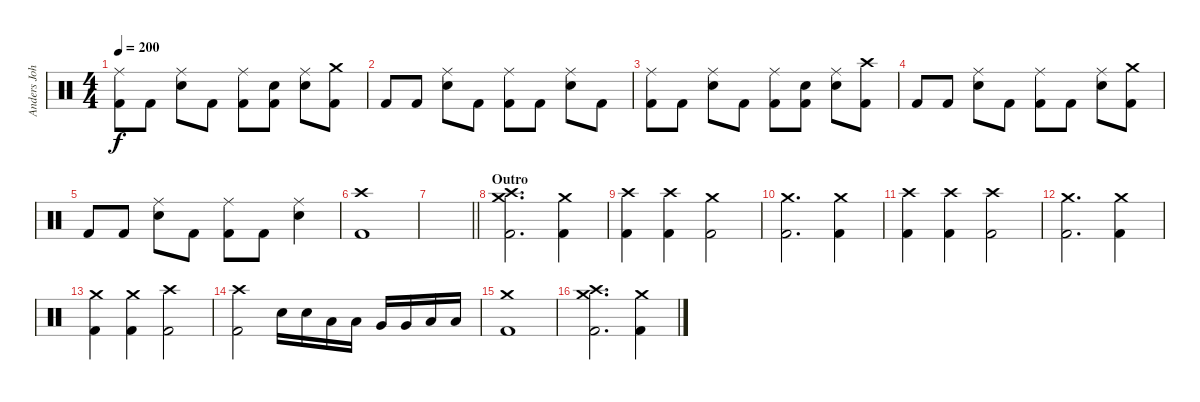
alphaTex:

\track ("Anders Johansson" "Anders Joh") {instrument percussion}
\staff {score}
\articulation defaults
\ts (4 4)
\tempo 200
\clef neutral
\ks c
("Ride (middle)" "Kick (hit) 2").8{dy f} "Kick (hit) 2".8 ("Ride (middle)" "Snare (hit) 2").8 "Kick (hit) 2".8 ("Ride (middle)" "Kick (hit) 2").8 ("Snare (hit) 2" "Kick (hit) 2").8 ("Ride (middle)" "Snare (hit) 2").8 ("Crash medium (hit)" "Kick (hit) 2").8 |
"Kick (hit) 2".8 "Kick (hit) 2".8 ("Ride (middle)" "Snare (hit) 2").8 "Kick (hit) 2".8 ("Ride (middle)" "Kick (hit) 2").8 "Kick (hit) 2".8 ("Ride (middle)" "Snare (hit) 2").8 "Kick (hit) 2".8 |
("Ride (middle)" "Kick (hit) 2").8 "Kick (hit) 2".8 ("Ride (middle)" "Snare (hit) 2").8 "Kick (hit) 2".8 ("Ride (middle)" "Kick (hit) 2").8 ("Snare (hit) 2" "Kick (hit) 2").8 ("Ride (middle)" "Snare (hit) 2").8 ("Crash high (hit)" "Kick (hit) 2").8 |
"Kick (hit) 2".8 "Kick (hit) 2".8 ("Ride (middle)" "Snare (hit) 2").8 "Kick (hit) 2".8 ("Ride (middle)" "Kick (hit) 2").8 "Kick (hit) 2".8 ("Ride (middle)" "Snare (hit) 2").8 ("Crash medium (hit)" "Kick (hit) 2").8 |
"Kick (hit) 2".8 "Kick (hit) 2".8 ("Ride (middle)" "Snare (hit) 2").8 "Kick (hit) 2".8 ("Ride (middle)" "Kick (hit) 2").8 "Kick (hit) 2".8 ("Ride (middle)" "Snare (hit) 2").4 |
("Crash high (hit)" "Kick (hit) 2").1 |
\barLineRight lightlight
|
\section ("" "Outro")
("Crash medium (hit)" "Crash high (hit)" "Kick (hit) 2").2{d} ("Crash medium (hit)" "Kick (hit) 2").4 |
("Crash high (hit)" "Kick (hit) 2").4 ("Crash high (hit)" "Kick (hit) 2").4 ("Crash medium (hit)" "Kick (hit) 2").2 |
("Crash medium (hit)" "Kick (hit) 2").2{d} ("Crash medium (hit)" "Kick (hit) 2").4 |
("Crash high (hit)" "Kick (hit) 2").4 ("Crash high (hit)" "Kick (hit) 2").4 ("Crash high (hit)" "Kick (hit) 2").2 |
("Crash medium (hit)" "Kick (hit) 2").2{d} ("Crash medium (hit)" "Kick (hit) 2").4 |
("Crash medium (hit)" "Kick (hit) 2").4 ("Crash medium (hit)" "Kick (hit) 2").4 ("Crash high (hit)" "Kick (hit) 2").2 |
("Crash high (hit)" "Kick (hit) 2").2 "Snare (hit) 2".16 "Snare (hit) 2".16 "Low Tom (hit)".16 "Low Tom (hit)".16 "Very Low Tom (hit)".16 "Very Low Tom (hit)".16 "Low Floor Tom (hit)".16 "Low Floor Tom (hit)".16 |
("Crash medium (hit)" "Kick (hit) 2").1 |
("Crash medium (hit)" "Crash high (hit)" "Kick (hit) 2").2{d} ("Crash medium (hit)" "Kick (hit) 2").4
